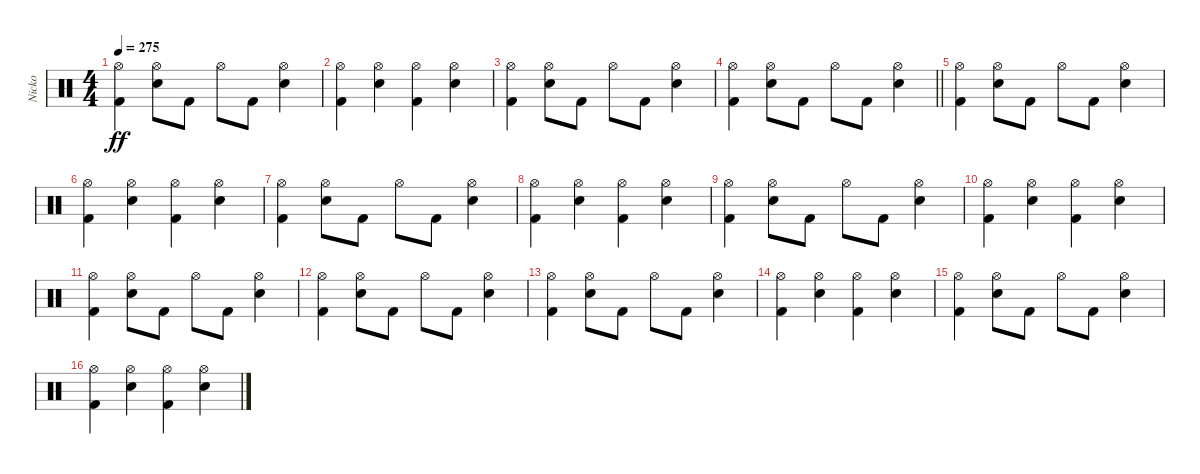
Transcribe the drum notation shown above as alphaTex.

\track ("Nicko" "Nicko") {instrument percussion}
\staff {score}
\articulation defaults
\ts (4 4)
\tempo 275
\clef neutral
\ks c
("Kick (hit) 2" "Hi-Hat (open)").4{dy ff} ("Snare (hit) 2" "Hi-Hat (open)").8 "Kick (hit) 2".8 "Hi-Hat (open)".8 "Kick (hit) 2".8 ("Snare (hit) 2" "Hi-Hat (open)").4 |
("Kick (hit) 2" "Hi-Hat (open)").4 ("Snare (hit) 2" "Hi-Hat (open)").4 ("Kick (hit) 2" "Hi-Hat (open)").4 ("Snare (hit) 2" "Hi-Hat (open)").4 |
("Kick (hit) 2" "Hi-Hat (open)").4 ("Snare (hit) 2" "Hi-Hat (open)").8 "Kick (hit) 2".8 "Hi-Hat (open)".8 "Kick (hit) 2".8 ("Snare (hit) 2" "Hi-Hat (open)").4 |
\barLineRight lightlight
("Kick (hit) 2" "Hi-Hat (open)").4 ("Snare (hit) 2" "Hi-Hat (open)").8 "Kick (hit) 2".8 "Hi-Hat (open)".8 "Kick (hit) 2".8 ("Snare (hit) 2" "Hi-Hat (open)").4 |
("Kick (hit) 2" "Hi-Hat (open)").4 ("Snare (hit) 2" "Hi-Hat (open)").8 "Kick (hit) 2".8 "Hi-Hat (open)".8 "Kick (hit) 2".8 ("Snare (hit) 2" "Hi-Hat (open)").4 |
("Kick (hit) 2" "Hi-Hat (open)").4 ("Snare (hit) 2" "Hi-Hat (open)").4 ("Kick (hit) 2" "Hi-Hat (open)").4 ("Snare (hit) 2" "Hi-Hat (open)").4 |
("Kick (hit) 2" "Hi-Hat (open)").4 ("Snare (hit) 2" "Hi-Hat (open)").8 "Kick (hit) 2".8 "Hi-Hat (open)".8 "Kick (hit) 2".8 ("Snare (hit) 2" "Hi-Hat (open)").4 |
("Kick (hit) 2" "Hi-Hat (open)").4 ("Snare (hit) 2" "Hi-Hat (open)").4 ("Kick (hit) 2" "Hi-Hat (open)").4 ("Snare (hit) 2" "Hi-Hat (open)").4 |
("Kick (hit) 2" "Hi-Hat (open)").4 ("Snare (hit) 2" "Hi-Hat (open)").8 "Kick (hit) 2".8 "Hi-Hat (open)".8 "Kick (hit) 2".8 ("Snare (hit) 2" "Hi-Hat (open)").4 |
("Kick (hit) 2" "Hi-Hat (open)").4 ("Snare (hit) 2" "Hi-Hat (open)").4 ("Kick (hit) 2" "Hi-Hat (open)").4 ("Snare (hit) 2" "Hi-Hat (open)").4 |
("Kick (hit) 2" "Hi-Hat (open)").4 ("Snare (hit) 2" "Hi-Hat (open)").8 "Kick (hit) 2".8 "Hi-Hat (open)".8 "Kick (hit) 2".8 ("Snare (hit) 2" "Hi-Hat (open)").4 |
("Kick (hit) 2" "Hi-Hat (open)").4 ("Snare (hit) 2" "Hi-Hat (open)").8 "Kick (hit) 2".8 "Hi-Hat (open)".8 "Kick (hit) 2".8 ("Snare (hit) 2" "Hi-Hat (open)").4 |
("Kick (hit) 2" "Hi-Hat (open)").4 ("Snare (hit) 2" "Hi-Hat (open)").8 "Kick (hit) 2".8 "Hi-Hat (open)".8 "Kick (hit) 2".8 ("Snare (hit) 2" "Hi-Hat (open)").4 |
("Kick (hit) 2" "Hi-Hat (open)").4 ("Snare (hit) 2" "Hi-Hat (open)").4 ("Kick (hit) 2" "Hi-Hat (open)").4 ("Snare (hit) 2" "Hi-Hat (open)").4 |
("Kick (hit) 2" "Hi-Hat (open)").4 ("Snare (hit) 2" "Hi-Hat (open)").8 "Kick (hit) 2".8 "Hi-Hat (open)".8 "Kick (hit) 2".8 ("Snare (hit) 2" "Hi-Hat (open)").4 |
("Kick (hit) 2" "Hi-Hat (open)").4 ("Snare (hit) 2" "Hi-Hat (open)").4 ("Kick (hit) 2" "Hi-Hat (open)").4 ("Snare (hit) 2" "Hi-Hat (open)").4
